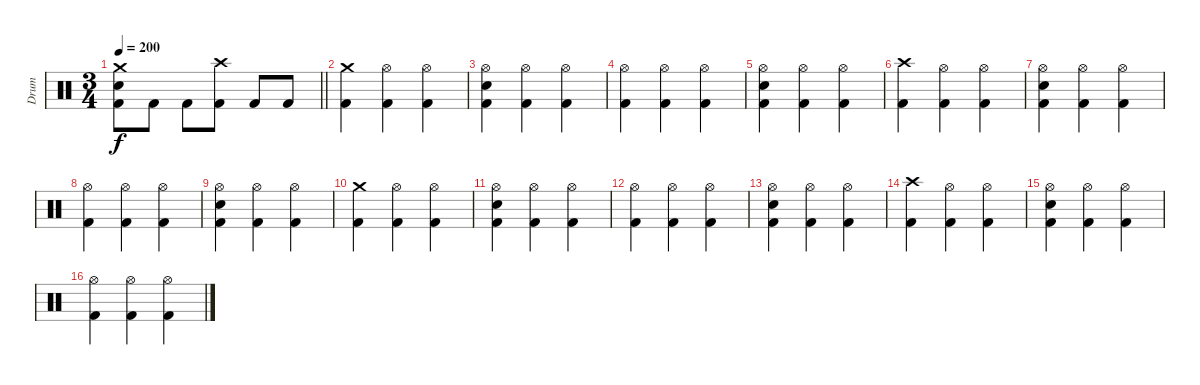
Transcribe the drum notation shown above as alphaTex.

\track ("Drum" "Drum") {instrument percussion}
\staff {score}
\articulation defaults
\ts (3 4)
\tempo 200
\clef neutral
\barLineRight lightlight
\ks c
("Crash medium (hit)" "Electric Snare (hit)" "Kick (hit) 2").8{dy f} "Kick (hit) 2".8 "Kick (hit) 2".8 ("Crash high (hit)" "Kick (hit) 2").8 "Kick (hit) 2".8 "Kick (hit) 2".8 |
("Crash medium (hit)" "Kick (hit) 2").4 ("Hi-Hat (open)" "Kick (hit) 2").4 ("Hi-Hat (open)" "Kick (hit) 2").4 |
("Hi-Hat (open)" "Electric Snare (hit)" "Kick (hit) 2").4 ("Hi-Hat (open)" "Kick (hit) 2").4 ("Hi-Hat (open)" "Kick (hit) 2").4 |
("Hi-Hat (open)" "Kick (hit) 2").4 ("Hi-Hat (open)" "Kick (hit) 2").4 ("Hi-Hat (open)" "Kick (hit) 2").4 |
("Hi-Hat (open)" "Electric Snare (hit)" "Kick (hit) 2").4 ("Hi-Hat (open)" "Kick (hit) 2").4 ("Hi-Hat (open)" "Kick (hit) 2").4 |
("Crash high (hit)" "Kick (hit) 2").4 ("Hi-Hat (open)" "Kick (hit) 2").4 ("Hi-Hat (open)" "Kick (hit) 2").4 |
("Hi-Hat (open)" "Electric Snare (hit)" "Kick (hit) 2").4 ("Hi-Hat (open)" "Kick (hit) 2").4 ("Hi-Hat (open)" "Kick (hit) 2").4 |
("Hi-Hat (open)" "Kick (hit) 2").4 ("Hi-Hat (open)" "Kick (hit) 2").4 ("Hi-Hat (open)" "Kick (hit) 2").4 |
("Hi-Hat (open)" "Electric Snare (hit)" "Kick (hit) 2").4 ("Hi-Hat (open)" "Kick (hit) 2").4 ("Hi-Hat (open)" "Kick (hit) 2").4 |
("Crash medium (hit)" "Kick (hit) 2").4 ("Hi-Hat (open)" "Kick (hit) 2").4 ("Hi-Hat (open)" "Kick (hit) 2").4 |
("Hi-Hat (open)" "Electric Snare (hit)" "Kick (hit) 2").4 ("Hi-Hat (open)" "Kick (hit) 2").4 ("Hi-Hat (open)" "Kick (hit) 2").4 |
("Hi-Hat (open)" "Kick (hit) 2").4 ("Hi-Hat (open)" "Kick (hit) 2").4 ("Hi-Hat (open)" "Kick (hit) 2").4 |
("Hi-Hat (open)" "Electric Snare (hit)" "Kick (hit) 2").4 ("Hi-Hat (open)" "Kick (hit) 2").4 ("Hi-Hat (open)" "Kick (hit) 2").4 |
("Crash high (hit)" "Kick (hit) 2").4 ("Hi-Hat (open)" "Kick (hit) 2").4 ("Hi-Hat (open)" "Kick (hit) 2").4 |
("Hi-Hat (open)" "Electric Snare (hit)" "Kick (hit) 2").4 ("Hi-Hat (open)" "Kick (hit) 2").4 ("Hi-Hat (open)" "Kick (hit) 2").4 |
("Hi-Hat (open)" "Kick (hit) 2").4 ("Hi-Hat (open)" "Kick (hit) 2").4 ("Hi-Hat (open)" "Kick (hit) 2").4
